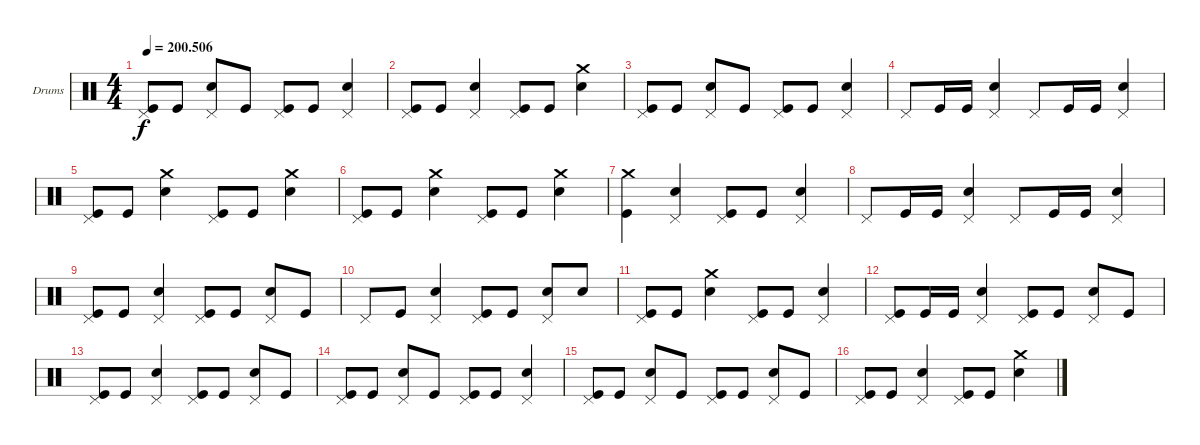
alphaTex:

\bracketExtendMode groupsimilarinstruments
\firstSystemTrackNameOrientation horizontal
\otherSystemsTrackNameOrientation horizontal
\track ("Drums" "Drums") {instrument percussion}
\staff {score}
\articulation defaults
\ts (4 4)
\tempo
200.506
\accidentals auto
\clef neutral
\ottava regular
\simile none
\ks c
("Pedal Hi-Hat (hit)" "Kick (hit)").8{dy f} "Kick (hit)".8 ("Pedal Hi-Hat (hit)" "Snare (hit) 2").8 "Kick (hit)".8 ("Pedal Hi-Hat (hit)" "Kick (hit)").8 "Kick (hit)".8 ("Pedal Hi-Hat (hit)" "Snare (hit) 2").4 |
("Pedal Hi-Hat (hit)" "Kick (hit)").8 "Kick (hit)".8 ("Pedal Hi-Hat (hit)" "Snare (hit) 2").4 ("Pedal Hi-Hat (hit)" "Kick (hit)").8 "Kick (hit)".8 ("Crash medium (hit)" "Snare (hit) 2").4 |
("Pedal Hi-Hat (hit)" "Kick (hit)").8 "Kick (hit)".8 ("Pedal Hi-Hat (hit)" "Snare (hit) 2").8 "Kick (hit)".8 ("Pedal Hi-Hat (hit)" "Kick (hit)").8 "Kick (hit)".8 ("Pedal Hi-Hat (hit)" "Snare (hit) 2").4 |
"Pedal Hi-Hat (hit)".8 "Kick (hit)".16 "Kick (hit)".16 ("Pedal Hi-Hat (hit)" "Snare (hit) 2").4 "Pedal Hi-Hat (hit)".8 "Kick (hit)".16 "Kick (hit)".16 ("Pedal Hi-Hat (hit)" "Snare (hit) 2").4 |
("Pedal Hi-Hat (hit)" "Kick (hit)").8 "Kick (hit)".8 ("Snare (hit) 2" "Crash medium (hit)").4 ("Pedal Hi-Hat (hit)" "Kick (hit)").8 "Kick (hit)".8 ("Crash medium (hit)" "Snare (hit) 2").4 |
("Pedal Hi-Hat (hit)" "Kick (hit)").8 "Kick (hit)".8 ("Snare (hit) 2" "Crash medium (hit)").4 ("Pedal Hi-Hat (hit)" "Kick (hit)").8 "Kick (hit)".8 ("Crash medium (hit)" "Snare (hit) 2").4 |
("Crash medium (hit)" "Kick (hit)").4 ("Pedal Hi-Hat (hit)" "Snare (hit) 2").4 ("Pedal Hi-Hat (hit)" "Kick (hit)").8 "Kick (hit)".8 ("Pedal Hi-Hat (hit)" "Snare (hit) 2").4 |
"Pedal Hi-Hat (hit)".8 "Kick (hit)".16 "Kick (hit)".16 ("Pedal Hi-Hat (hit)" "Snare (hit) 2").4 "Pedal Hi-Hat (hit)".8 "Kick (hit)".16 "Kick (hit)".16 ("Pedal Hi-Hat (hit)" "Snare (hit) 2").4 |
("Pedal Hi-Hat (hit)" "Kick (hit)").8 "Kick (hit)".8 ("Pedal Hi-Hat (hit)" "Snare (hit) 2").4 ("Pedal Hi-Hat (hit)" "Kick (hit)").8 "Kick (hit)".8 ("Pedal Hi-Hat (hit)" "Snare (hit) 2").8 "Kick (hit)".8 |
"Pedal Hi-Hat (hit)".8 "Kick (hit)".8 ("Pedal Hi-Hat (hit)" "Snare (hit) 2").4 ("Pedal Hi-Hat (hit)" "Kick (hit)").8 "Kick (hit)".8 ("Pedal Hi-Hat (hit)" "Snare (hit) 2").8 "Snare (hit) 2".8 |
("Pedal Hi-Hat (hit)" "Kick (hit)").8 "Kick (hit)".8 ("Crash medium (hit)" "Snare (hit) 2").4 ("Pedal Hi-Hat (hit)" "Kick (hit)").8 "Kick (hit)".8 ("Pedal Hi-Hat (hit)" "Snare (hit) 2").4 |
("Pedal Hi-Hat (hit)" "Kick (hit)").8 "Kick (hit)".16 "Kick (hit)".16 ("Pedal Hi-Hat (hit)" "Snare (hit) 2").4 ("Pedal Hi-Hat (hit)" "Kick (hit)").8 "Kick (hit)".8 ("Pedal Hi-Hat (hit)" "Snare (hit) 2").8 "Kick (hit)".8 |
("Pedal Hi-Hat (hit)" "Kick (hit)").8 "Kick (hit)".8 ("Pedal Hi-Hat (hit)" "Snare (hit) 2").4 ("Pedal Hi-Hat (hit)" "Kick (hit)").8 "Kick (hit)".8 ("Pedal Hi-Hat (hit)" "Snare (hit) 2").8 "Kick (hit)".8 |
("Pedal Hi-Hat (hit)" "Kick (hit)").8 "Kick (hit)".8 ("Pedal Hi-Hat (hit)" "Snare (hit) 2").8 "Kick (hit)".8 ("Pedal Hi-Hat (hit)" "Kick (hit)").8 "Kick (hit)".8 ("Pedal Hi-Hat (hit)" "Snare (hit) 2").4 |
("Pedal Hi-Hat (hit)" "Kick (hit)").8 "Kick (hit)".8 ("Pedal Hi-Hat (hit)" "Snare (hit) 2").8 "Kick (hit)".8 ("Pedal Hi-Hat (hit)" "Kick (hit)").8 "Kick (hit)".8 ("Pedal Hi-Hat (hit)" "Snare (hit) 2").8 "Kick (hit)".8 |
("Pedal Hi-Hat (hit)" "Kick (hit)").8 "Kick (hit)".8 ("Pedal Hi-Hat (hit)" "Snare (hit) 2").4 ("Pedal Hi-Hat (hit)" "Kick (hit)").8 "Kick (hit)".8 ("Crash medium (hit)" "Snare (hit) 2").4
